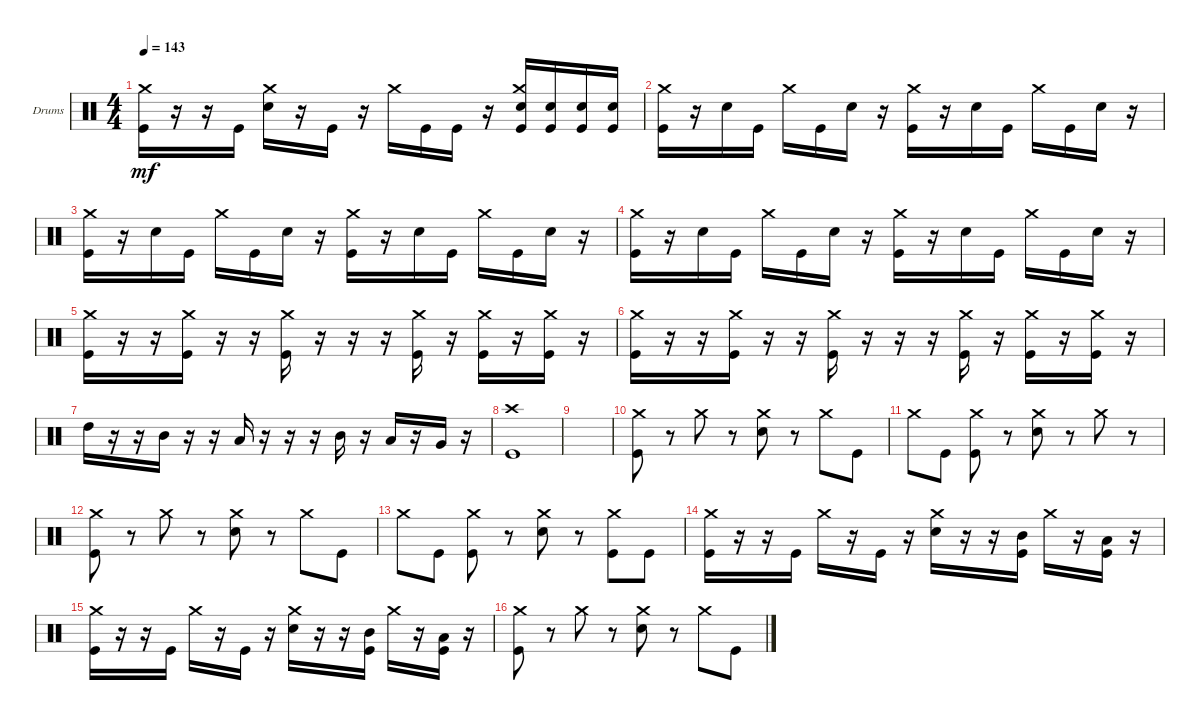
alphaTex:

\defaultSystemsLayout 4
\bracketExtendMode groupsimilarinstruments
\firstSystemTrackNameOrientation horizontal
\otherSystemsTrackNameOrientation horizontal
\track ("Drumkit" "Drums") {instrument percussion}
\staff {score}
\articulation defaults
\ts (4 4)
\tempo 143
\clef neutral
\scale
0.333333
\ks c
("Kick (hit)" "Crash medium (hit)").16{dy mf} r.16 r.16 "Kick (hit)".16 ("Snare (hit) 2" "Crash medium (hit)").16 r.16 "Kick (hit)".16 r.16 "Crash medium (hit)".16 "Kick (hit)".16 "Kick (hit)".16 r.16 ("Kick (hit)" "Snare (hit) 2" "Crash medium (hit)").16 ("Kick (hit)" "Snare (hit) 2").16 ("Kick (hit)" "Snare (hit) 2").16 ("Snare (hit) 2" "Kick (hit)").16 |
\scale
0.333333 ("Kick (hit)" "Crash medium (hit)").16 r.16 "Snare (hit) 2".16 "Kick (hit)".16 "Crash medium (hit)".16 "Kick (hit)".16 "Snare (hit) 2".16 r.16 ("Kick (hit)" "Crash medium (hit)").16 r.16 "Snare (hit) 2".16 "Kick (hit)".16 "Crash medium (hit)".16 "Kick (hit)".16 "Snare (hit) 2".16 r.16 |
\scale
0.333333 ("Kick (hit)" "Crash medium (hit)").16 r.16 "Snare (hit) 2".16 "Kick (hit)".16 "Crash medium (hit)".16 "Kick (hit)".16 "Snare (hit) 2".16 r.16 ("Kick (hit)" "Crash medium (hit)").16 r.16 "Snare (hit) 2".16 "Kick (hit)".16 "Crash medium (hit)".16 "Kick (hit)".16 "Snare (hit) 2".16 r.16 |
\scale
0.333333 ("Kick (hit)" "Crash medium (hit)").16 r.16 "Snare (hit) 2".16 "Kick (hit)".16 "Crash medium (hit)".16 "Kick (hit)".16 "Snare (hit) 2".16 r.16 ("Kick (hit)" "Crash medium (hit)").16 r.16 "Snare (hit) 2".16 "Kick (hit)".16 "Crash medium (hit)".16 "Kick (hit)".16 "Snare (hit) 2".16 r.16 |
\scale
0.333333 ("Kick (hit)" "Crash medium (hit)").16 r.16 r.16 ("Kick (hit)" "Crash medium (hit)").16 r.16 r.16 ("Kick (hit)" "Crash medium (hit)").16 r.16 r.16 r.16 ("Kick (hit)" "Crash medium (hit)").16 r.16 ("Kick (hit)" "Crash medium (hit)").16 r.16 ("Kick (hit)" "Crash medium (hit)").16 r.16 |
\scale
0.333333 ("Kick (hit)" "Crash medium (hit)").16 r.16 r.16 ("Kick (hit)" "Crash medium (hit)").16 r.16 r.16 ("Kick (hit)" "Crash medium (hit)").16 r.16 r.16 r.16 ("Kick (hit)" "Crash medium (hit)").16 r.16 ("Kick (hit)" "Crash medium (hit)").16 r.16 ("Kick (hit)" "Crash medium (hit)").16 r.16 |
\scale
0.333333 "High Tom (hit)".16 r.16 r.16 "Mid Tom (hit)".16 r.16 r.16 "Low Tom (hit)".16 r.16 r.16 r.16 "Mid Tom (hit)".16 r.16 "Low Tom (hit)".16 r.16 "Very Low Tom (hit)".16 r.16 |
\scale
0.333333 ("Kick (hit)" "Crash high (hit)").1 |
\scale
0.333333 |
\scale
0.333333 ("Kick (hit)" "Crash medium (hit)").8 r.8 "Crash medium (hit)".8 r.8 ("Snare (hit) 2" "Crash medium (hit)").8 r.8 "Crash medium (hit)".8 "Kick (hit)".8 |
\scale
0.333333 "Crash medium (hit)".8 "Kick (hit)".8 ("Kick (hit)" "Crash medium (hit)").8 r.8 ("Snare (hit) 2" "Crash medium (hit)").8 r.8 "Crash medium (hit)".8 r.8 |
\scale
0.333333 ("Kick (hit)" "Crash medium (hit)").8 r.8 "Crash medium (hit)".8 r.8 ("Snare (hit) 2" "Crash medium (hit)").8 r.8 "Crash medium (hit)".8 "Kick (hit)".8 |
\scale
0.333333 "Crash medium (hit)".8 "Kick (hit)".8 ("Kick (hit)" "Crash medium (hit)").8 r.8 ("Snare (hit) 2" "Crash medium (hit)").8 r.8 ("Crash medium (hit)" "Kick (hit)").8 "Kick (hit)".8 |
\scale
0.333333 ("Kick (hit)" "Crash medium (hit)").16 r.16 r.16 "Kick (hit)".16 "Crash medium (hit)".16 r.16 "Kick (hit)".16 r.16 ("Snare (hit) 2" "Crash medium (hit)").16 r.16 r.16 ("Kick (hit)" "Mid Tom (hit)").16 "Crash medium (hit)".16 r.16 ("Kick (hit)" "Low Tom (hit)").16 r.16 |
\scale
0.333333 ("Kick (hit)" "Crash medium (hit)").16 r.16 r.16 "Kick (hit)".16 "Crash medium (hit)".16 r.16 "Kick (hit)".16 r.16 ("Snare (hit) 2" "Crash medium (hit)").16 r.16 r.16 ("Kick (hit)" "Mid Tom (hit)").16 "Crash medium (hit)".16 r.16 ("Kick (hit)" "Low Tom (hit)").16 r.16 |
\scale
0.333333 ("Kick (hit)" "Crash medium (hit)").8 r.8 "Crash medium (hit)".8 r.8 ("Snare (hit) 2" "Crash medium (hit)").8 r.8 "Crash medium (hit)".8 "Kick (hit)".8
